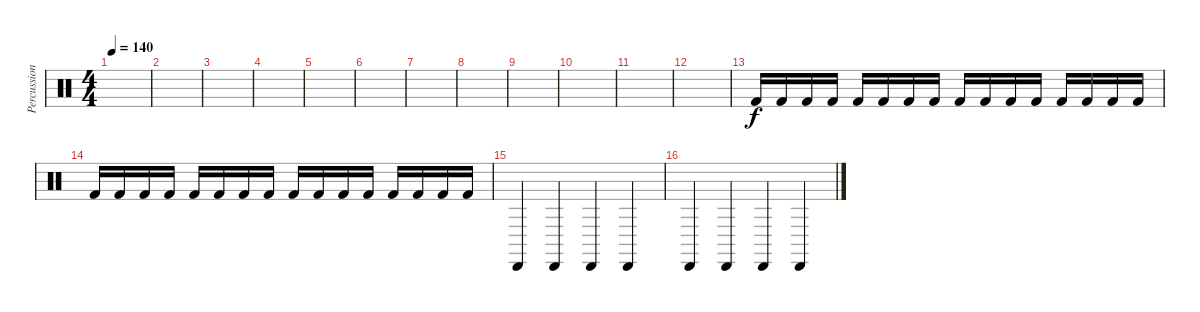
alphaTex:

\track ("Percussion" "Percussion") {instrument percussion}
\staff {score}
\articulation defaults
\ts (4 4)
\tempo 140
\clef neutral
\ks c
|
|
|
|
|
|
|
|
|
|
|
|
"Kick (hit) 2".16 "Kick (hit) 2".16 "Kick (hit) 2".16 "Kick (hit) 2".16 "Kick (hit) 2".16 "Kick (hit) 2".16 "Kick (hit) 2".16 "Kick (hit) 2".16 "Kick (hit) 2".16 "Kick (hit) 2".16 "Kick (hit) 2".16 "Kick (hit) 2".16 "Kick (hit) 2".16 "Kick (hit) 2".16 "Kick (hit) 2".16 "Kick (hit) 2".16 |
"Kick (hit) 2".16 "Kick (hit) 2".16 "Kick (hit) 2".16 "Kick (hit) 2".16 "Kick (hit) 2".16 "Kick (hit) 2".16 "Kick (hit) 2".16 "Kick (hit) 2".16 "Kick (hit) 2".16 "Kick (hit) 2".16 "Kick (hit) 2".16 "Kick (hit) 2".16 "Kick (hit) 2".16 "Kick (hit) 2".16 "Kick (hit) 2".16 "Kick (hit) 2".16 |
"Cabasa (hit)".4 "Cabasa (hit)".4 "Cabasa (hit)".4 "Cabasa (hit)".4 |
"Cabasa (hit)".4 "Cabasa (hit)".4 "Cabasa (hit)".4 "Cabasa (hit)".4
